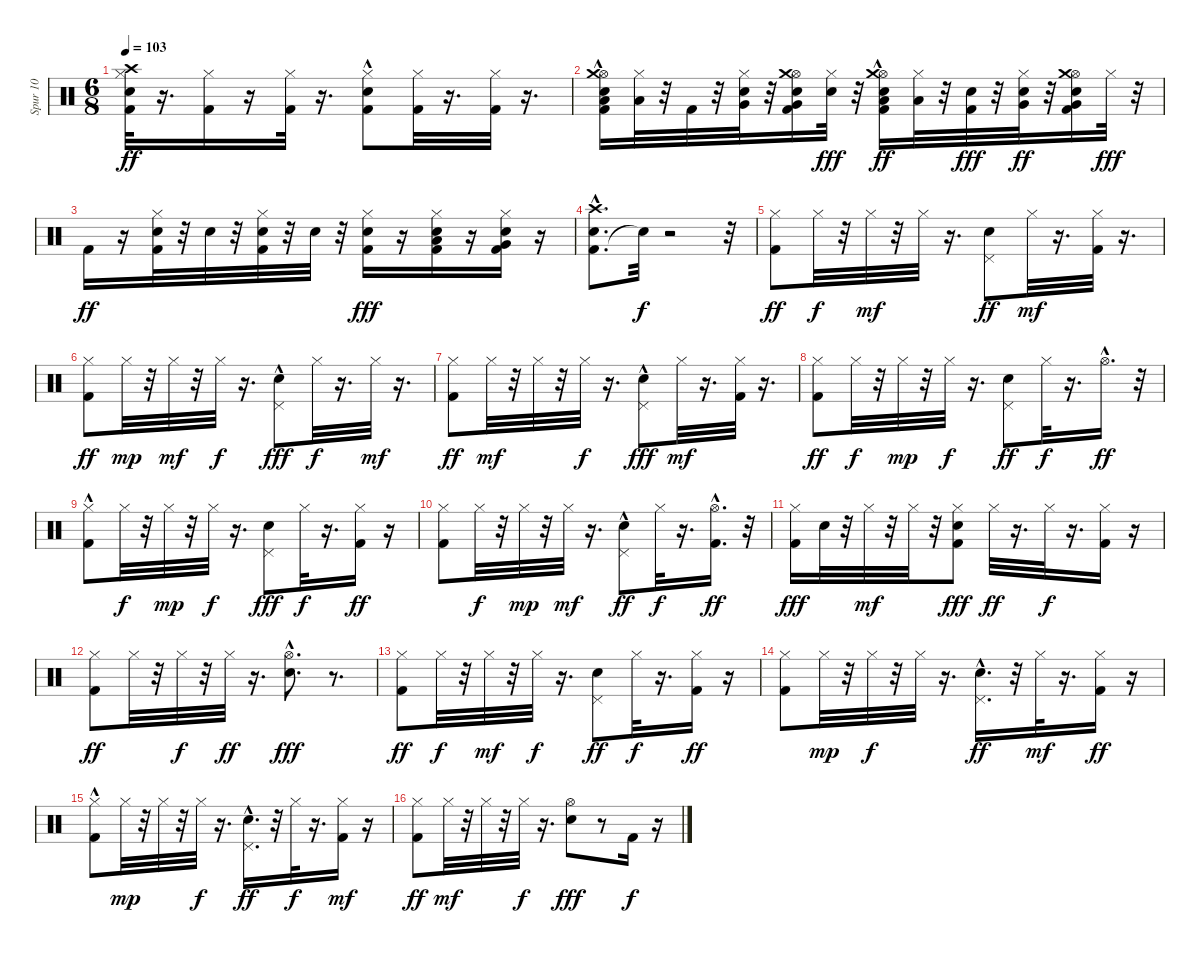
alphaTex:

\track ("Spur 10" "Spur 10") {instrument percussion}
\staff {score}
\articulation defaults
\ts (6 8)
\tempo 103
\clef neutral
\ks c
("Kick (hit) 2" "Snare (hit) 2" "Hi-Hat (closed)" "Crash high (hit)").32{dy ff} r.16{d} ("Kick (hit) 2" "Hi-Hat (closed)").16 r.16 ("Kick (hit) 2" "Hi-Hat (closed)").32 r.16{d} ("Kick (hit) 2" "Snare (hit) 2"{hac} "Hi-Hat (closed)").8 ("Kick (hit) 2" "Hi-Hat (closed)").32 r.16{d} ("Kick (hit) 2" "Hi-Hat (closed)").32 r.16{d} |
("Kick (hit) 2" "Metronome (bell)" "Hi-Hat (open)"{hac} "Crash medium (hit)" "Low Tom (hit)").16 ("Hi-Hat (closed)" "Low Tom (hit)").32 r.32 "Kick (hit) 2".32 r.32 ("Snare (hit) 2" "Hi-Hat (closed)" "Very Low Tom (hit)").32 r.32 ("Kick (hit) 2" "Metronome (bell)" "Hi-Hat (open)" "Crash medium (hit)" "Very Low Tom (hit)").16 ("Snare (hit) 2" "Hi-Hat (closed)").32{dy fff} r.32 ("Kick (hit) 2" "Metronome (bell)" "Hi-Hat (open)"{hac} "Crash medium (hit)" "Low Tom (hit)").16{dy ff} ("Hi-Hat (closed)" "Low Tom (hit)").32 r.32 ("Kick (hit) 2" "Snare (hit) 2").32{dy fff} r.32 ("Metronome (bell)" "Hi-Hat (closed)" "Very Low Tom (hit)").32{dy ff} r.32 ("Kick (hit) 2" "Snare (hit) 2" "Hi-Hat (open)" "Crash medium (hit)" "Very Low Tom (hit)").16 "Hi-Hat (closed)".32{dy fff} r.32 |
"Kick (hit) 2".16{dy ff} r.16 ("Kick (hit) 2" "Snare (hit) 2" "Hi-Hat (closed)").32 r.32 "Snare (hit) 2".32 r.32 ("Kick (hit) 2" "Snare (hit) 2" "Hi-Hat (closed)").32 r.32 "Snare (hit) 2".32 r.32 ("Kick (hit) 2" "Snare (hit) 2" "Hi-Hat (closed)").16{dy fff} r.16 ("Kick (hit) 2" "Snare (hit) 2" "Hi-Hat (closed)" "Low Tom (hit)").16 r.16 ("Kick (hit) 2" "Snare (hit) 2" "Hi-Hat (closed)" "Very Low Tom (hit)").16 r.16 |
("Kick (hit) 2" "Snare (hit) 2" "Crash high (hit)"{hac}).8{d} "Snare (hit)"{t}.32{dy f} r.2 r.32 |
("Kick (hit) 2" "Hi-Hat (closed)").8{dy ff} "Hi-Hat (closed)".32{dy f} r.32 "Hi-Hat (closed)".32{dy mf} r.32 "Hi-Hat (closed)".32 r.16{d} ("Snare (hit) 2" "Pedal Hi-Hat (hit)").8{dy ff} "Hi-Hat (closed)".32{dy mf} r.16{d} ("Kick (hit) 2" "Hi-Hat (closed)").32 r.16{d} |
("Kick (hit) 2" "Hi-Hat (closed)").8{dy ff} "Hi-Hat (closed)".32{dy mp} r.32 "Hi-Hat (closed)".32{dy mf} r.32 "Hi-Hat (closed)".32{dy f} r.16{d} ("Snare (hit) 2"{hac} "Pedal Hi-Hat (hit)").8{dy fff} "Hi-Hat (closed)".32{dy f} r.16{d} "Hi-Hat (closed)".32{dy mf} r.16{d} |
("Kick (hit) 2" "Hi-Hat (closed)").8{dy ff} "Hi-Hat (closed)".32{dy mf} r.32 "Hi-Hat (closed)".32 r.32 "Hi-Hat (closed)".32{dy f} r.16{d} ("Snare (hit) 2"{hac} "Pedal Hi-Hat (hit)").8{dy fff} "Hi-Hat (closed)".32{dy mf} r.16{d} ("Kick (hit) 2" "Hi-Hat (closed)").32 r.16{d} |
("Kick (hit) 2" "Hi-Hat (closed)").8{dy ff} "Hi-Hat (closed)".32{dy f} r.32 "Hi-Hat (closed)".32{dy mp} r.32 "Hi-Hat (closed)".32{dy f} r.16{d} ("Snare (hit) 2" "Pedal Hi-Hat (hit)").8{dy ff} "Hi-Hat (closed)".32{dy f} r.16{d} "Hi-Hat (open)"{hac}.16{d dy ff} r.32 |
("Kick (hit) 2"{hac} "Hi-Hat (closed)").8 "Hi-Hat (closed)".32{dy f} r.32 "Hi-Hat (closed)".32{dy mp} r.32 "Hi-Hat (closed)".32{dy f} r.16{d} ("Snare (hit) 2" "Pedal Hi-Hat (hit)").8{dy fff} "Hi-Hat (closed)".32{dy f} r.16{d} ("Kick (hit) 2" "Hi-Hat (closed)").16{dy ff} r.16 |
("Kick (hit) 2" "Hi-Hat (closed)").8 "Hi-Hat (closed)".32{dy f} r.32 "Hi-Hat (closed)".32{dy mp} r.32 "Hi-Hat (closed)".32{dy mf} r.16{d} ("Snare (hit) 2"{hac} "Pedal Hi-Hat (hit)").8{dy ff} "Hi-Hat (closed)".32{dy f} r.16{d} ("Kick (hit) 2" "Hi-Hat (open)"{hac}).16{d dy ff} r.32 |
("Kick (hit) 2" "Hi-Hat (closed)").16{dy fff} "Snare (hit) 2".32 r.32 "Hi-Hat (closed)".32{dy mf} r.32 "Hi-Hat (closed)".32 r.32 ("Kick (hit) 2" "Snare (hit) 2" "Hi-Hat (closed)").8{dy fff} "Hi-Hat (closed)".32{dy ff} r.16{d} "Hi-Hat (closed)".32{dy f} r.16{d} ("Kick (hit) 2" "Hi-Hat (closed)").16 r.16 |
("Kick (hit) 2" "Hi-Hat (closed)").8{dy ff} "Hi-Hat (closed)".32 r.32 "Hi-Hat (closed)".32{dy f} r.32 "Hi-Hat (closed)".32{dy ff} r.16{d} ("Snare (hit) 2" "Hi-Hat (open)"{hac}).8{d dy fff} r.8{d} |
("Kick (hit) 2" "Hi-Hat (closed)").8{dy ff} "Hi-Hat (closed)".32{dy f} r.32 "Hi-Hat (closed)".32{dy mf} r.32 "Hi-Hat (closed)".32{dy f} r.16{d} ("Snare (hit) 2" "Pedal Hi-Hat (hit)").8{dy ff} "Hi-Hat (closed)".32{dy f} r.16{d} ("Kick (hit) 2" "Hi-Hat (closed)").16{dy ff} r.16 |
("Kick (hit) 2" "Hi-Hat (closed)").8 "Hi-Hat (closed)".32{dy mp} r.32 "Hi-Hat (closed)".32{dy f} r.32 "Hi-Hat (closed)".32 r.16{d} ("Snare (hit) 2"{hac} "Pedal Hi-Hat (hit)").16{d dy ff} r.32 "Hi-Hat (closed)".32{dy mf} r.16{d} ("Kick (hit) 2" "Hi-Hat (closed)").16{dy ff} r.16 |
("Kick (hit) 2"{hac} "Hi-Hat (closed)").8 "Hi-Hat (closed)".32{dy mp} r.32 "Hi-Hat (closed)".32 r.32 "Hi-Hat (closed)".32{dy f} r.16{d} ("Snare (hit) 2"{hac} "Pedal Hi-Hat (hit)").16{d dy ff} r.32 "Hi-Hat (closed)".32{dy f} r.16{d} ("Kick (hit) 2" "Hi-Hat (closed)").16{dy mf} r.16 |
("Kick (hit) 2" "Hi-Hat (closed)").8{dy ff} "Hi-Hat (closed)".32{dy mf} r.32 "Hi-Hat (closed)".32 r.32 "Hi-Hat (closed)".32{dy f} r.16{d} ("Snare (hit) 2" "Hi-Hat (open)").8{dy fff} r.8 "Kick (hit) 2".16{dy f} r.16
